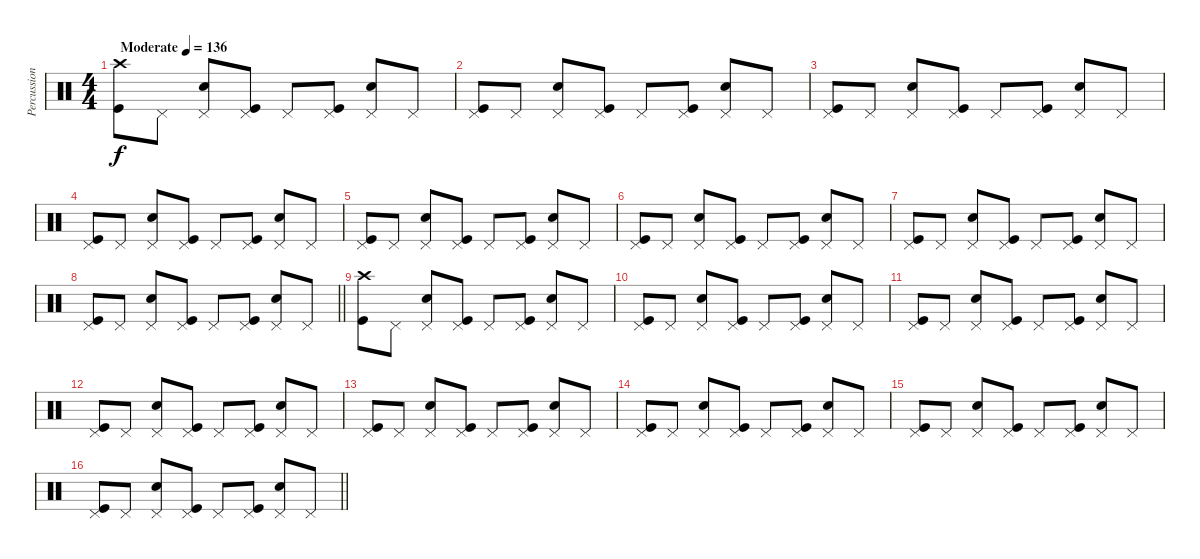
\track ("Percussion" "Percussion") {instrument percussion}
\staff {score}
\articulation defaults
\ts (4 4)
\tempo (136 "Moderate")
\clef neutral
\ks c
("Crash high (hit)" "Kick (hit)").8{dy f} "Pedal Hi-Hat (hit)".8 ("Pedal Hi-Hat (hit)" "Snare (hit) 2").8 ("Pedal Hi-Hat (hit)" "Kick (hit)").8 "Pedal Hi-Hat (hit)".8 ("Pedal Hi-Hat (hit)" "Kick (hit)").8 ("Pedal Hi-Hat (hit)" "Snare (hit) 2").8 "Pedal Hi-Hat (hit)".8 |
("Pedal Hi-Hat (hit)" "Kick (hit)").8 "Pedal Hi-Hat (hit)".8 ("Pedal Hi-Hat (hit)" "Snare (hit) 2").8 ("Pedal Hi-Hat (hit)" "Kick (hit)").8 "Pedal Hi-Hat (hit)".8 ("Pedal Hi-Hat (hit)" "Kick (hit)").8 ("Pedal Hi-Hat (hit)" "Snare (hit) 2").8 "Pedal Hi-Hat (hit)".8 |
("Pedal Hi-Hat (hit)" "Kick (hit)").8 "Pedal Hi-Hat (hit)".8 ("Pedal Hi-Hat (hit)" "Snare (hit) 2").8 ("Pedal Hi-Hat (hit)" "Kick (hit)").8 "Pedal Hi-Hat (hit)".8 ("Pedal Hi-Hat (hit)" "Kick (hit)").8 ("Pedal Hi-Hat (hit)" "Snare (hit) 2").8 "Pedal Hi-Hat (hit)".8 |
("Pedal Hi-Hat (hit)" "Kick (hit)").8 "Pedal Hi-Hat (hit)".8 ("Pedal Hi-Hat (hit)" "Snare (hit) 2").8 ("Pedal Hi-Hat (hit)" "Kick (hit)").8 "Pedal Hi-Hat (hit)".8 ("Pedal Hi-Hat (hit)" "Kick (hit)").8 ("Pedal Hi-Hat (hit)" "Snare (hit) 2").8 "Pedal Hi-Hat (hit)".8 |
("Pedal Hi-Hat (hit)" "Kick (hit)").8 "Pedal Hi-Hat (hit)".8 ("Pedal Hi-Hat (hit)" "Snare (hit) 2").8 ("Pedal Hi-Hat (hit)" "Kick (hit)").8 "Pedal Hi-Hat (hit)".8 ("Pedal Hi-Hat (hit)" "Kick (hit)").8 ("Pedal Hi-Hat (hit)" "Snare (hit) 2").8 "Pedal Hi-Hat (hit)".8 |
("Pedal Hi-Hat (hit)" "Kick (hit)").8 "Pedal Hi-Hat (hit)".8 ("Pedal Hi-Hat (hit)" "Snare (hit) 2").8 ("Pedal Hi-Hat (hit)" "Kick (hit)").8 "Pedal Hi-Hat (hit)".8 ("Pedal Hi-Hat (hit)" "Kick (hit)").8 ("Pedal Hi-Hat (hit)" "Snare (hit) 2").8 "Pedal Hi-Hat (hit)".8 |
("Pedal Hi-Hat (hit)" "Kick (hit)").8 "Pedal Hi-Hat (hit)".8 ("Pedal Hi-Hat (hit)" "Snare (hit) 2").8 ("Pedal Hi-Hat (hit)" "Kick (hit)").8 "Pedal Hi-Hat (hit)".8 ("Pedal Hi-Hat (hit)" "Kick (hit)").8 ("Pedal Hi-Hat (hit)" "Snare (hit) 2").8 "Pedal Hi-Hat (hit)".8 |
\barLineRight lightlight
("Pedal Hi-Hat (hit)" "Kick (hit)").8 "Pedal Hi-Hat (hit)".8 ("Pedal Hi-Hat (hit)" "Snare (hit) 2").8 ("Pedal Hi-Hat (hit)" "Kick (hit)").8 "Pedal Hi-Hat (hit)".8 ("Pedal Hi-Hat (hit)" "Kick (hit)").8 ("Pedal Hi-Hat (hit)" "Snare (hit) 2").8 "Pedal Hi-Hat (hit)".8 |
("Crash high (hit)" "Kick (hit)").8 "Pedal Hi-Hat (hit)".8 ("Pedal Hi-Hat (hit)" "Snare (hit) 2").8 ("Pedal Hi-Hat (hit)" "Kick (hit)").8 "Pedal Hi-Hat (hit)".8 ("Pedal Hi-Hat (hit)" "Kick (hit)").8 ("Pedal Hi-Hat (hit)" "Snare (hit) 2").8 "Pedal Hi-Hat (hit)".8 |
("Pedal Hi-Hat (hit)" "Kick (hit)").8 "Pedal Hi-Hat (hit)".8 ("Pedal Hi-Hat (hit)" "Snare (hit) 2").8 ("Pedal Hi-Hat (hit)" "Kick (hit)").8 "Pedal Hi-Hat (hit)".8 ("Pedal Hi-Hat (hit)" "Kick (hit)").8 ("Pedal Hi-Hat (hit)" "Snare (hit) 2").8 "Pedal Hi-Hat (hit)".8 |
("Pedal Hi-Hat (hit)" "Kick (hit)").8 "Pedal Hi-Hat (hit)".8 ("Pedal Hi-Hat (hit)" "Snare (hit) 2").8 ("Pedal Hi-Hat (hit)" "Kick (hit)").8 "Pedal Hi-Hat (hit)".8 ("Pedal Hi-Hat (hit)" "Kick (hit)").8 ("Pedal Hi-Hat (hit)" "Snare (hit) 2").8 "Pedal Hi-Hat (hit)".8 |
("Pedal Hi-Hat (hit)" "Kick (hit)").8 "Pedal Hi-Hat (hit)".8 ("Pedal Hi-Hat (hit)" "Snare (hit) 2").8 ("Pedal Hi-Hat (hit)" "Kick (hit)").8 "Pedal Hi-Hat (hit)".8 ("Pedal Hi-Hat (hit)" "Kick (hit)").8 ("Pedal Hi-Hat (hit)" "Snare (hit) 2").8 "Pedal Hi-Hat (hit)".8 |
("Pedal Hi-Hat (hit)" "Kick (hit)").8 "Pedal Hi-Hat (hit)".8 ("Pedal Hi-Hat (hit)" "Snare (hit) 2").8 ("Pedal Hi-Hat (hit)" "Kick (hit)").8 "Pedal Hi-Hat (hit)".8 ("Pedal Hi-Hat (hit)" "Kick (hit)").8 ("Pedal Hi-Hat (hit)" "Snare (hit) 2").8 "Pedal Hi-Hat (hit)".8 |
("Pedal Hi-Hat (hit)" "Kick (hit)").8 "Pedal Hi-Hat (hit)".8 ("Pedal Hi-Hat (hit)" "Snare (hit) 2").8 ("Pedal Hi-Hat (hit)" "Kick (hit)").8 "Pedal Hi-Hat (hit)".8 ("Pedal Hi-Hat (hit)" "Kick (hit)").8 ("Pedal Hi-Hat (hit)" "Snare (hit) 2").8 "Pedal Hi-Hat (hit)".8 |
("Pedal Hi-Hat (hit)" "Kick (hit)").8 "Pedal Hi-Hat (hit)".8 ("Pedal Hi-Hat (hit)" "Snare (hit) 2").8 ("Pedal Hi-Hat (hit)" "Kick (hit)").8 "Pedal Hi-Hat (hit)".8 ("Pedal Hi-Hat (hit)" "Kick (hit)").8 ("Pedal Hi-Hat (hit)" "Snare (hit) 2").8 "Pedal Hi-Hat (hit)".8 |
\barLineRight lightlight
("Pedal Hi-Hat (hit)" "Kick (hit)").8 "Pedal Hi-Hat (hit)".8 ("Pedal Hi-Hat (hit)" "Snare (hit) 2").8 ("Pedal Hi-Hat (hit)" "Kick (hit)").8 "Pedal Hi-Hat (hit)".8 ("Pedal Hi-Hat (hit)" "Kick (hit)").8 ("Pedal Hi-Hat (hit)" "Snare (hit) 2").8 "Pedal Hi-Hat (hit)".8
